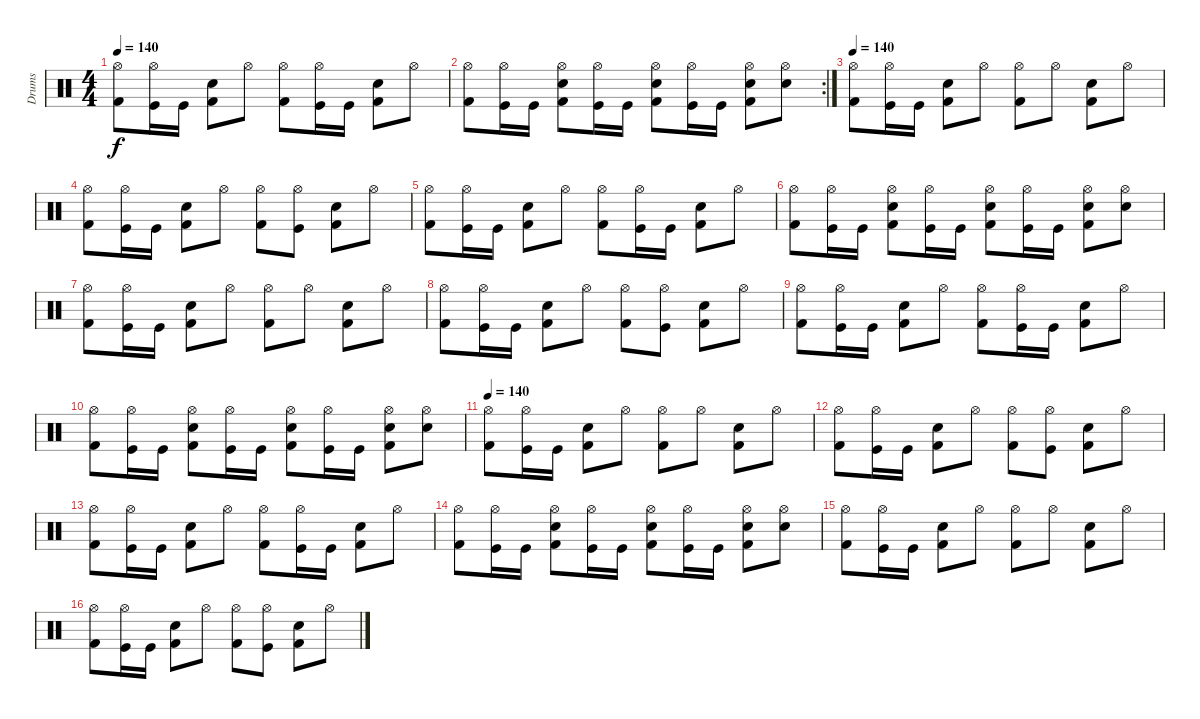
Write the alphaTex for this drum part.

\track ("Drums" "Drums") {instrument percussion}
\staff {score}
\articulation defaults
\ts (4 4)
\tempo 140
\clef neutral
\ks c
("Hi-Hat (open)" "Kick (hit) 2").8{dy f} ("Hi-Hat (open)" "Kick (hit)").16 "Kick (hit)".16 ("Electric Snare (hit)" "Kick (hit) 2").8 "Hi-Hat (open)".8 ("Hi-Hat (open)" "Kick (hit) 2").8 ("Hi-Hat (open)" "Kick (hit)").16 "Kick (hit)".16 ("Electric Snare (hit)" "Kick (hit) 2").8 "Hi-Hat (open)".8 |
\rc 2
("Hi-Hat (open)" "Kick (hit) 2").8 ("Hi-Hat (open)" "Kick (hit)").16 "Kick (hit)".16 ("Electric Snare (hit)" "Hi-Hat (open)" "Kick (hit) 2").8 ("Hi-Hat (open)" "Kick (hit)").16 "Kick (hit)".16 ("Electric Snare (hit)" "Hi-Hat (open)" "Kick (hit) 2").8 ("Hi-Hat (open)" "Kick (hit)").16 "Kick (hit)".16 ("Electric Snare (hit)" "Hi-Hat (open)" "Kick (hit) 2").8 ("Electric Snare (hit)" "Hi-Hat (open)").8 |
\tempo 140
("Hi-Hat (open)" "Kick (hit) 2").8 ("Hi-Hat (open)" "Kick (hit)").16 "Kick (hit)".16 ("Electric Snare (hit)" "Kick (hit) 2").8 "Hi-Hat (open)".8 ("Hi-Hat (open)" "Kick (hit) 2").8 "Hi-Hat (open)".8 ("Electric Snare (hit)" "Kick (hit) 2").8 "Hi-Hat (open)".8 |
("Hi-Hat (open)" "Kick (hit) 2").8 ("Hi-Hat (open)" "Kick (hit)").16 "Kick (hit)".16 ("Electric Snare (hit)" "Kick (hit) 2").8 "Hi-Hat (open)".8 ("Hi-Hat (open)" "Kick (hit) 2").8 ("Hi-Hat (open)" "Kick (hit)").8 ("Electric Snare (hit)" "Kick (hit) 2").8 "Hi-Hat (open)".8 |
("Hi-Hat (open)" "Kick (hit) 2").8 ("Hi-Hat (open)" "Kick (hit)").16 "Kick (hit)".16 ("Electric Snare (hit)" "Kick (hit) 2").8 "Hi-Hat (open)".8 ("Hi-Hat (open)" "Kick (hit) 2").8 ("Hi-Hat (open)" "Kick (hit)").16 "Kick (hit)".16 ("Electric Snare (hit)" "Kick (hit) 2").8 "Hi-Hat (open)".8 |
("Hi-Hat (open)" "Kick (hit) 2").8 ("Hi-Hat (open)" "Kick (hit)").16 "Kick (hit)".16 ("Electric Snare (hit)" "Hi-Hat (open)" "Kick (hit) 2").8 ("Hi-Hat (open)" "Kick (hit)").16 "Kick (hit)".16 ("Electric Snare (hit)" "Hi-Hat (open)" "Kick (hit) 2").8 ("Hi-Hat (open)" "Kick (hit)").16 "Kick (hit)".16 ("Electric Snare (hit)" "Hi-Hat (open)" "Kick (hit) 2").8 ("Electric Snare (hit)" "Hi-Hat (open)").8 |
("Hi-Hat (open)" "Kick (hit) 2").8 ("Hi-Hat (open)" "Kick (hit)").16 "Kick (hit)".16 ("Electric Snare (hit)" "Kick (hit) 2").8 "Hi-Hat (open)".8 ("Hi-Hat (open)" "Kick (hit) 2").8 "Hi-Hat (open)".8 ("Electric Snare (hit)" "Kick (hit) 2").8 "Hi-Hat (open)".8 |
("Hi-Hat (open)" "Kick (hit) 2").8 ("Hi-Hat (open)" "Kick (hit)").16 "Kick (hit)".16 ("Electric Snare (hit)" "Kick (hit) 2").8 "Hi-Hat (open)".8 ("Hi-Hat (open)" "Kick (hit) 2").8 ("Hi-Hat (open)" "Kick (hit)").8 ("Electric Snare (hit)" "Kick (hit) 2").8 "Hi-Hat (open)".8 |
("Hi-Hat (open)" "Kick (hit) 2").8 ("Hi-Hat (open)" "Kick (hit)").16 "Kick (hit)".16 ("Electric Snare (hit)" "Kick (hit) 2").8 "Hi-Hat (open)".8 ("Hi-Hat (open)" "Kick (hit) 2").8 ("Hi-Hat (open)" "Kick (hit)").16 "Kick (hit)".16 ("Electric Snare (hit)" "Kick (hit) 2").8 "Hi-Hat (open)".8 |
("Hi-Hat (open)" "Kick (hit) 2").8 ("Hi-Hat (open)" "Kick (hit)").16 "Kick (hit)".16 ("Electric Snare (hit)" "Hi-Hat (open)" "Kick (hit) 2").8 ("Hi-Hat (open)" "Kick (hit)").16 "Kick (hit)".16 ("Electric Snare (hit)" "Hi-Hat (open)" "Kick (hit) 2").8 ("Hi-Hat (open)" "Kick (hit)").16 "Kick (hit)".16 ("Electric Snare (hit)" "Hi-Hat (open)" "Kick (hit) 2").8 ("Electric Snare (hit)" "Hi-Hat (open)").8 |
\tempo 140
("Hi-Hat (open)" "Kick (hit) 2").8 ("Hi-Hat (open)" "Kick (hit)").16 "Kick (hit)".16 ("Electric Snare (hit)" "Kick (hit) 2").8 "Hi-Hat (open)".8 ("Hi-Hat (open)" "Kick (hit) 2").8 "Hi-Hat (open)".8 ("Electric Snare (hit)" "Kick (hit) 2").8 "Hi-Hat (open)".8 |
("Hi-Hat (open)" "Kick (hit) 2").8 ("Hi-Hat (open)" "Kick (hit)").16 "Kick (hit)".16 ("Electric Snare (hit)" "Kick (hit) 2").8 "Hi-Hat (open)".8 ("Hi-Hat (open)" "Kick (hit) 2").8 ("Hi-Hat (open)" "Kick (hit)").8 ("Electric Snare (hit)" "Kick (hit) 2").8 "Hi-Hat (open)".8 |
("Hi-Hat (open)" "Kick (hit) 2").8 ("Hi-Hat (open)" "Kick (hit)").16 "Kick (hit)".16 ("Electric Snare (hit)" "Kick (hit) 2").8 "Hi-Hat (open)".8 ("Hi-Hat (open)" "Kick (hit) 2").8 ("Hi-Hat (open)" "Kick (hit)").16 "Kick (hit)".16 ("Electric Snare (hit)" "Kick (hit) 2").8 "Hi-Hat (open)".8 |
("Hi-Hat (open)" "Kick (hit) 2").8 ("Hi-Hat (open)" "Kick (hit)").16 "Kick (hit)".16 ("Electric Snare (hit)" "Hi-Hat (open)" "Kick (hit) 2").8 ("Hi-Hat (open)" "Kick (hit)").16 "Kick (hit)".16 ("Electric Snare (hit)" "Hi-Hat (open)" "Kick (hit) 2").8 ("Hi-Hat (open)" "Kick (hit)").16 "Kick (hit)".16 ("Electric Snare (hit)" "Hi-Hat (open)" "Kick (hit) 2").8 ("Electric Snare (hit)" "Hi-Hat (open)").8 |
("Hi-Hat (open)" "Kick (hit) 2").8 ("Hi-Hat (open)" "Kick (hit)").16 "Kick (hit)".16 ("Electric Snare (hit)" "Kick (hit) 2").8 "Hi-Hat (open)".8 ("Hi-Hat (open)" "Kick (hit) 2").8 "Hi-Hat (open)".8 ("Electric Snare (hit)" "Kick (hit) 2").8 "Hi-Hat (open)".8 |
("Hi-Hat (open)" "Kick (hit) 2").8 ("Hi-Hat (open)" "Kick (hit)").16 "Kick (hit)".16 ("Electric Snare (hit)" "Kick (hit) 2").8 "Hi-Hat (open)".8 ("Hi-Hat (open)" "Kick (hit) 2").8 ("Hi-Hat (open)" "Kick (hit)").8 ("Electric Snare (hit)" "Kick (hit) 2").8 "Hi-Hat (open)".8
